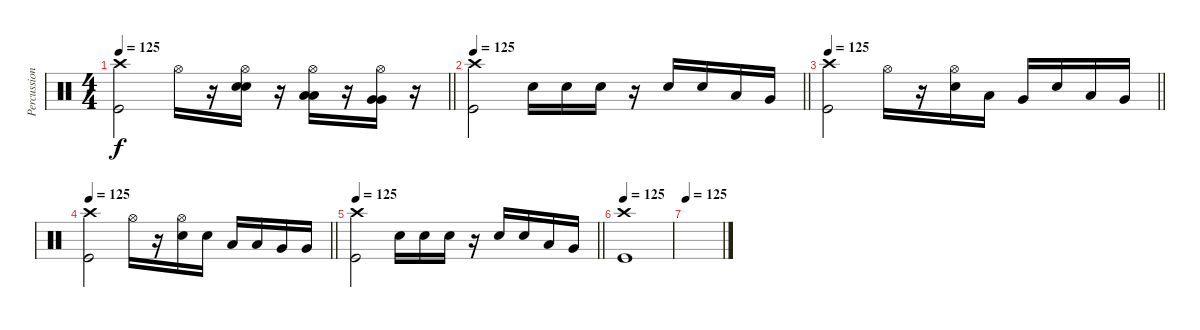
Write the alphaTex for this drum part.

\track ("Percussions" "Percussion") {instrument percussion}
\staff {score}
\articulation defaults
\ts (4 4)
\tempo 125
\clef neutral
\barLineRight lightlight
\ks c
("Crash high (hit)" "Kick (hit)").2{dy f} "Hi-Hat (open)".16 r.16 ("Hi-Hat (open)" "Electric Snare (hit)" "Electric Snare (hit)").16 r.16 ("Hi-Hat (open)" "Low Tom (hit)" "Low Tom (hit)").16 r.16 ("Hi-Hat (open)" "Very Low Tom (hit)" "Very Low Tom (hit)").16 r.16 |
\tempo 125
\barLineRight lightlight
("Crash high (hit)" "Kick (hit)").2 "Electric Snare (hit)".16 "Electric Snare (hit)".16 "Electric Snare (hit)".16 r.16 "Electric Snare (hit)".16 "Electric Snare (hit)".16 "Low Tom (hit)".16 "Very Low Tom (hit)".16 |
\tempo 125
\barLineRight lightlight
("Crash high (hit)" "Kick (hit)").2 "Hi-Hat (open)".16 r.16 ("Hi-Hat (open)" "Electric Snare (hit)").16 "Low Tom (hit)".16 "Very Low Tom (hit)".16 "Electric Snare (hit)".16 "Low Tom (hit)".16 "Very Low Tom (hit)".16 |
\tempo 125
\barLineRight lightlight
("Crash high (hit)" "Kick (hit)").2 "Hi-Hat (open)".16 r.16 ("Hi-Hat (open)" "Electric Snare (hit)").16 "Electric Snare (hit)".16 "Low Tom (hit)".16 "Low Tom (hit)".16 "Very Low Tom (hit)".16 "Very Low Tom (hit)".16 |
\tempo 125
\barLineRight lightlight
("Crash high (hit)" "Kick (hit)").2 "Electric Snare (hit)".16 "Electric Snare (hit)".16 "Electric Snare (hit)".16 r.16 "Electric Snare (hit)".16 "Electric Snare (hit)".16 "Low Tom (hit)".16 "Very Low Tom (hit)".16 |
\section ("" "")
\tempo 125
("Crash high (hit)" "Kick (hit)").1 |
\tempo 125
